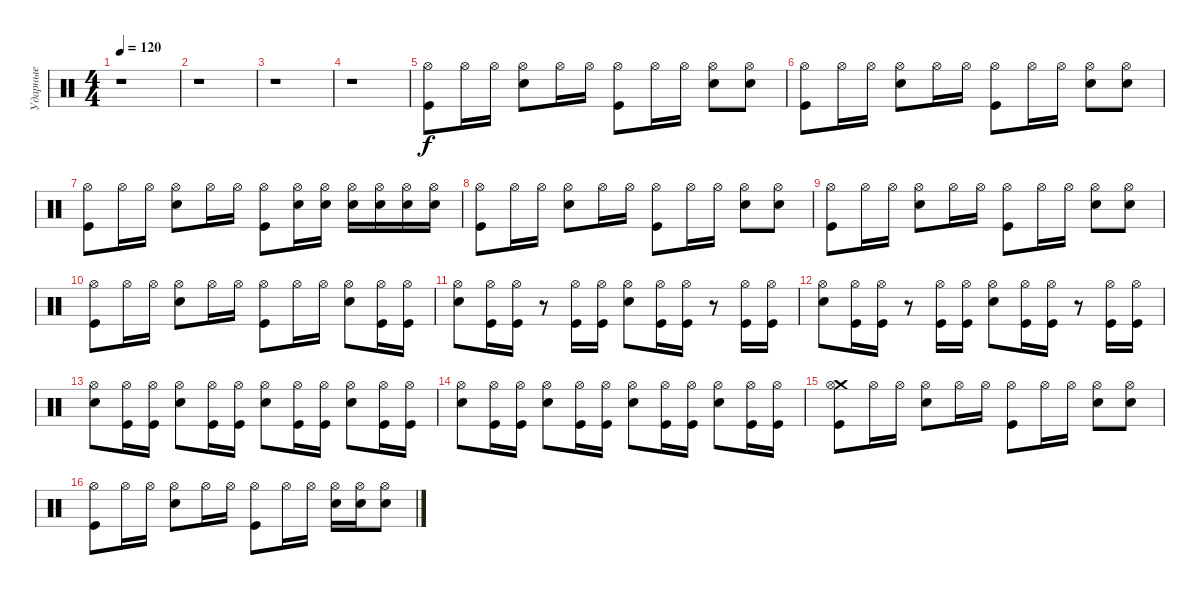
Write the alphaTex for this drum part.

\track ("Ударные" "Ударные") {instrument percussion}
\staff {score}
\articulation defaults
\ts (4 4)
\tempo 120
\clef neutral
\ks c
r.1{dy f} |
r.1 |
r.1 |
r.1 |
("Hi-Hat (open)" "Kick (hit)").8 "Hi-Hat (open)".16 "Hi-Hat (open)".16 ("Hi-Hat (open)" "Snare (hit) 2").8 "Hi-Hat (open)".16 "Hi-Hat (open)".16 ("Hi-Hat (open)" "Kick (hit)").8 "Hi-Hat (open)".16 "Hi-Hat (open)".16 ("Snare (hit) 2" "Hi-Hat (open)").8 ("Snare (hit) 2" "Hi-Hat (open)").8 |
("Hi-Hat (open)" "Kick (hit)").8 "Hi-Hat (open)".16 "Hi-Hat (open)".16 ("Hi-Hat (open)" "Snare (hit) 2").8 "Hi-Hat (open)".16 "Hi-Hat (open)".16 ("Hi-Hat (open)" "Kick (hit)").8 "Hi-Hat (open)".16 "Hi-Hat (open)".16 ("Snare (hit) 2" "Hi-Hat (open)").8 ("Snare (hit) 2" "Hi-Hat (open)").8 |
("Hi-Hat (open)" "Kick (hit)").8 "Hi-Hat (open)".16 "Hi-Hat (open)".16 ("Hi-Hat (open)" "Snare (hit) 2").8 "Hi-Hat (open)".16 "Hi-Hat (open)".16 ("Hi-Hat (open)" "Kick (hit)").8 ("Hi-Hat (open)" "Snare (hit) 2").16 ("Hi-Hat (open)" "Snare (hit) 2").16 ("Snare (hit) 2" "Hi-Hat (open)").16 ("Snare (hit) 2" "Hi-Hat (open)").16 ("Hi-Hat (open)" "Snare (hit) 2").16 ("Hi-Hat (open)" "Snare (hit) 2").16 |
("Hi-Hat (open)" "Kick (hit)").8 "Hi-Hat (open)".16 "Hi-Hat (open)".16 ("Hi-Hat (open)" "Snare (hit) 2").8 "Hi-Hat (open)".16 "Hi-Hat (open)".16 ("Hi-Hat (open)" "Kick (hit)").8 "Hi-Hat (open)".16 "Hi-Hat (open)".16 ("Snare (hit) 2" "Hi-Hat (open)").8 ("Snare (hit) 2" "Hi-Hat (open)").8 |
("Hi-Hat (open)" "Kick (hit)").8 "Hi-Hat (open)".16 "Hi-Hat (open)".16 ("Hi-Hat (open)" "Snare (hit) 2").8 "Hi-Hat (open)".16 "Hi-Hat (open)".16 ("Hi-Hat (open)" "Kick (hit)").8 "Hi-Hat (open)".16 "Hi-Hat (open)".16 ("Snare (hit) 2" "Hi-Hat (open)").8 ("Snare (hit) 2" "Hi-Hat (open)").8 |
("Hi-Hat (open)" "Kick (hit)").8 "Hi-Hat (open)".16 "Hi-Hat (open)".16 ("Hi-Hat (open)" "Snare (hit) 2").8 "Hi-Hat (open)".16 "Hi-Hat (open)".16 ("Hi-Hat (open)" "Kick (hit)").8 "Hi-Hat (open)".16 "Hi-Hat (open)".16 ("Snare (hit) 2" "Hi-Hat (open)").8 ("Kick (hit)" "Hi-Hat (open)").16 ("Kick (hit)" "Hi-Hat (open)").16 |
("Hi-Hat (open)" "Snare (hit) 2").8 ("Hi-Hat (open)" "Kick (hit)").16 ("Hi-Hat (open)" "Kick (hit)").16 r.8 ("Hi-Hat (open)" "Kick (hit)").16 ("Hi-Hat (open)" "Kick (hit)").16 ("Hi-Hat (open)" "Snare (hit) 2").8 ("Kick (hit)" "Hi-Hat (open)").16 ("Kick (hit)" "Hi-Hat (open)").16 r.8 ("Hi-Hat (open)" "Kick (hit)").16 ("Hi-Hat (open)" "Kick (hit)").16 |
("Hi-Hat (open)" "Snare (hit) 2").8 ("Hi-Hat (open)" "Kick (hit)").16 ("Hi-Hat (open)" "Kick (hit)").16 r.8 ("Hi-Hat (open)" "Kick (hit)").16 ("Hi-Hat (open)" "Kick (hit)").16 ("Hi-Hat (open)" "Snare (hit) 2").8 ("Kick (hit)" "Hi-Hat (open)").16 ("Kick (hit)" "Hi-Hat (open)").16 r.8 ("Hi-Hat (open)" "Kick (hit)").16 ("Hi-Hat (open)" "Kick (hit)").16 |
("Hi-Hat (open)" "Snare (hit) 2").8 ("Hi-Hat (open)" "Kick (hit)").16 ("Hi-Hat (open)" "Kick (hit)").16 ("Snare (hit) 2" "Hi-Hat (open)").8 ("Hi-Hat (open)" "Kick (hit)").16 ("Hi-Hat (open)" "Kick (hit)").16 ("Hi-Hat (open)" "Snare (hit) 2").8 ("Kick (hit)" "Hi-Hat (open)").16 ("Kick (hit)" "Hi-Hat (open)").16 ("Snare (hit) 2" "Hi-Hat (open)").8 ("Hi-Hat (open)" "Kick (hit)").16 ("Hi-Hat (open)" "Kick (hit)").16 |
("Hi-Hat (open)" "Snare (hit) 2").8 ("Hi-Hat (open)" "Kick (hit)").16 ("Hi-Hat (open)" "Kick (hit)").16 ("Snare (hit) 2" "Hi-Hat (open)").8 ("Hi-Hat (open)" "Kick (hit)").16 ("Hi-Hat (open)" "Kick (hit)").16 ("Hi-Hat (open)" "Snare (hit) 2").8 ("Kick (hit)" "Hi-Hat (open)").16 ("Kick (hit)" "Hi-Hat (open)").16 ("Snare (hit) 2" "Hi-Hat (open)").8 ("Hi-Hat (open)" "Kick (hit)").16 ("Hi-Hat (open)" "Kick (hit)").16 |
("Crash medium (hit)" "Hi-Hat (open)" "Kick (hit)").8 "Hi-Hat (open)".16 "Hi-Hat (open)".16 ("Hi-Hat (open)" "Snare (hit) 2").8 "Hi-Hat (open)".16 "Hi-Hat (open)".16 ("Hi-Hat (open)" "Kick (hit)").8 "Hi-Hat (open)".16 "Hi-Hat (open)".16 ("Snare (hit) 2" "Hi-Hat (open)").8 ("Snare (hit) 2" "Hi-Hat (open)").8 |
("Hi-Hat (open)" "Kick (hit)").8 "Hi-Hat (open)".16 "Hi-Hat (open)".16 ("Hi-Hat (open)" "Snare (hit) 2").8 "Hi-Hat (open)".16 "Hi-Hat (open)".16 ("Hi-Hat (open)" "Kick (hit)").8 "Hi-Hat (open)".16 "Hi-Hat (open)".16 ("Snare (hit) 2" "Hi-Hat (open)").16 ("Snare (hit) 2" "Hi-Hat (open)").16 ("Snare (hit) 2" "Hi-Hat (open)").8
